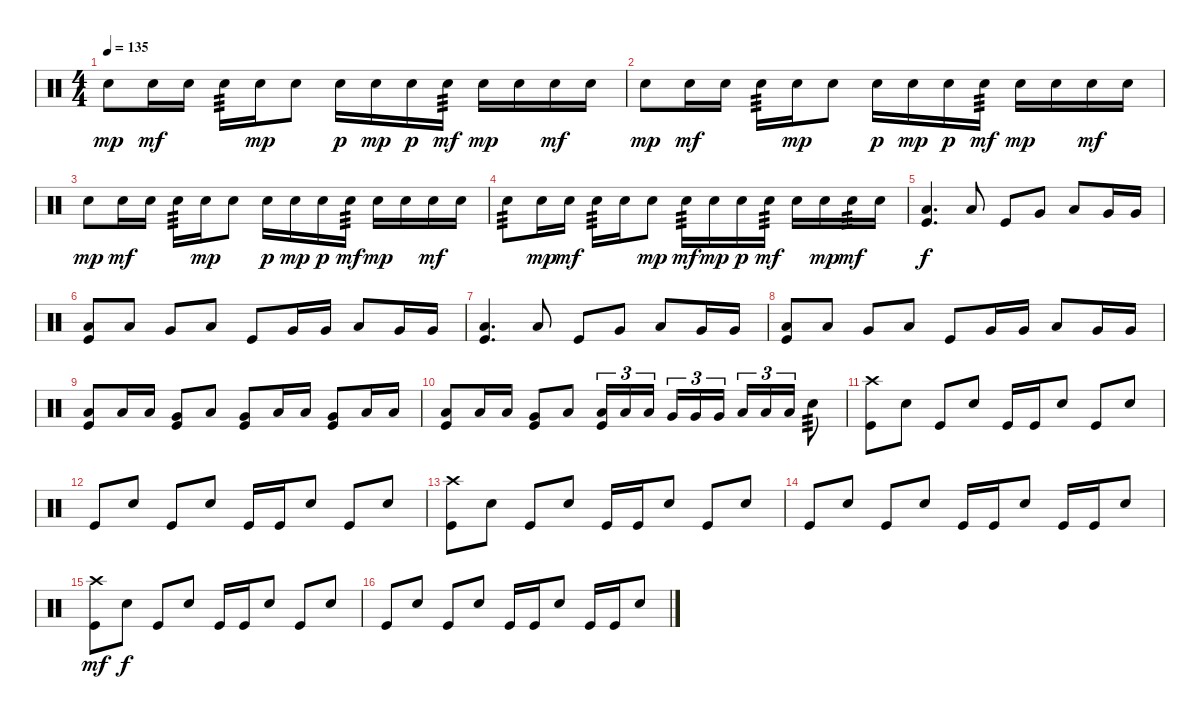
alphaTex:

\track "" {instrument percussion}
\staff {score}
\articulation defaults
\ts (4 4)
\tempo 135
\clef neutral
\ks c "Snare (hit) 2".8{dy mp} "Snare (hit) 2".16{dy mf} "Snare (hit) 2".16 "Snare (hit) 2".16{tp 3} "Snare (hit) 2".16{dy mp} "Snare (hit) 2".8 "Snare (hit) 2".16{dy p} "Snare (hit) 2".16{dy mp} "Snare (hit) 2".16{dy p} "Snare (hit) 2".16{tp 3 dy mf} "Snare (hit) 2".16{dy mp} "Snare (hit) 2".16 "Snare (hit) 2".16{dy mf} "Snare (hit) 2".16
|
"Snare (hit) 2".8{dy mp} "Snare (hit) 2".16{dy mf} "Snare (hit) 2".16 "Snare (hit) 2".16{tp 3} "Snare (hit) 2".16{dy mp} "Snare (hit) 2".8 "Snare (hit) 2".16{dy p} "Snare (hit) 2".16{dy mp} "Snare (hit) 2".16{dy p} "Snare (hit) 2".16{tp 3 dy mf} "Snare (hit) 2".16{dy mp} "Snare (hit) 2".16 "Snare (hit) 2".16{dy mf} "Snare (hit) 2".16 |
"Snare (hit) 2".8{dy mp} "Snare (hit) 2".16{dy mf} "Snare (hit) 2".16 "Snare (hit) 2".16{tp 3} "Snare (hit) 2".16{dy mp} "Snare (hit) 2".8 "Snare (hit) 2".16{dy p} "Snare (hit) 2".16{dy mp} "Snare (hit) 2".16{dy p} "Snare (hit) 2".16{tp 3 dy mf} "Snare (hit) 2".16{dy mp} "Snare (hit) 2".16 "Snare (hit) 2".16{dy mf} "Snare (hit) 2".16 |
"Snare (hit) 2".8{tp 3} "Snare (hit) 2".16{dy mp} "Snare (hit) 2".16{dy mf} "Snare (hit) 2".16{tp 3} "Snare (hit) 2".16 "Snare (hit) 2".8{dy mp} "Snare (hit) 2".16{tp 3 dy mf} "Snare (hit) 2".16{dy mp} "Snare (hit) 2".16{dy p} "Snare (hit) 2".16{tp 3 dy mf} "Snare (hit) 2".16 "Snare (hit) 2".16{dy mp} "Snare (hit) 2".16{tp 3 dy mf} "Snare (hit) 2".16 |
("Low Tom (hit)" "Kick (hit)").4{d dy f} "Low Tom (hit)".8 "Kick (hit)".8 "Very Low Tom (hit)".8 "Low Tom (hit)".8 "Very Low Tom (hit)".16 "Very Low Tom (hit)".16 |
("Low Tom (hit)" "Kick (hit)").8 "Low Tom (hit)".8 "Very Low Tom (hit)".8 "Low Tom (hit)".8 "Kick (hit)".8 "Very Low Tom (hit)".16 "Very Low Tom (hit)".16 "Low Tom (hit)".8 "Very Low Tom (hit)".16 "Very Low Tom (hit)".16 |
("Low Tom (hit)" "Kick (hit)").4{d} "Low Tom (hit)".8 "Kick (hit)".8 "Very Low Tom (hit)".8 "Low Tom (hit)".8 "Very Low Tom (hit)".16 "Very Low Tom (hit)".16 |
("Low Tom (hit)" "Kick (hit)").8 "Low Tom (hit)".8 "Very Low Tom (hit)".8 "Low Tom (hit)".8 "Kick (hit)".8 "Very Low Tom (hit)".16 "Very Low Tom (hit)".16 "Low Tom (hit)".8 "Very Low Tom (hit)".16 "Very Low Tom (hit)".16 |
("Low Tom (hit)" "Kick (hit)").8 "Low Tom (hit)".16 "Low Tom (hit)".16 ("Very Low Tom (hit)" "Kick (hit)").8 "Low Tom (hit)".8 ("Very Low Tom (hit)" "Kick (hit)").8 "Low Tom (hit)".16 "Low Tom (hit)".16 ("Very Low Tom (hit)" "Kick (hit)").8 "Low Tom (hit)".16 "Low Tom (hit)".16 |
("Low Tom (hit)" "Kick (hit)").8 "Low Tom (hit)".16 "Low Tom (hit)".16 ("Very Low Tom (hit)" "Kick (hit)").8 "Low Tom (hit)".8 ("Low Tom (hit)" "Kick (hit)").16{tu (3 2)} "Low Tom (hit)".16{tu (3 2)} "Low Tom (hit)".16{tu (3 2) beam splitsecondary} "Very Low Tom (hit)".16{tu (3 2)} "Very Low Tom (hit)".16{tu (3 2)} "Very Low Tom (hit)".16{tu (3 2)} "Low Floor Tom (hit)".16{tu (3 2)} "Low Floor Tom (hit)".16{tu (3 2)} "Low Floor Tom (hit)".16{tu (3 2)} "Snare (hit) 2".8{tp 3} |
("Crash high (hit)" "Kick (hit)").8 "Snare (hit) 2".8 "Kick (hit)".8 "Snare (hit) 2".8 "Kick (hit)".16 "Kick (hit)".16 "Snare (hit) 2".8 "Kick (hit)".8 "Snare (hit) 2".8 |
"Kick (hit)".8 "Snare (hit) 2".8 "Kick (hit)".8 "Snare (hit) 2".8 "Kick (hit)".16 "Kick (hit)".16 "Snare (hit) 2".8 "Kick (hit)".8 "Snare (hit) 2".8 |
("Crash high (hit)" "Kick (hit)").8 "Snare (hit) 2".8 "Kick (hit)".8 "Snare (hit) 2".8 "Kick (hit)".16 "Kick (hit)".16 "Snare (hit) 2".8 "Kick (hit)".8 "Snare (hit) 2".8 |
"Kick (hit)".8 "Snare (hit) 2".8 "Kick (hit)".8 "Snare (hit) 2".8 "Kick (hit)".16 "Kick (hit)".16 "Snare (hit) 2".8 "Kick (hit)".16 "Kick (hit)".16 "Snare (hit) 2".8 |
("Crash high (hit)" "Kick (hit)").8{dy mf} "Snare (hit) 2".8{dy f} "Kick (hit)".8 "Snare (hit) 2".8 "Kick (hit)".16 "Kick (hit)".16 "Snare (hit) 2".8 "Kick (hit)".8 "Snare (hit) 2".8 |
"Kick (hit)".8 "Snare (hit) 2".8 "Kick (hit)".8 "Snare (hit) 2".8 "Kick (hit)".16 "Kick (hit)".16 "Snare (hit) 2".8 "Kick (hit)".16 "Kick (hit)".16 "Snare (hit) 2".8
